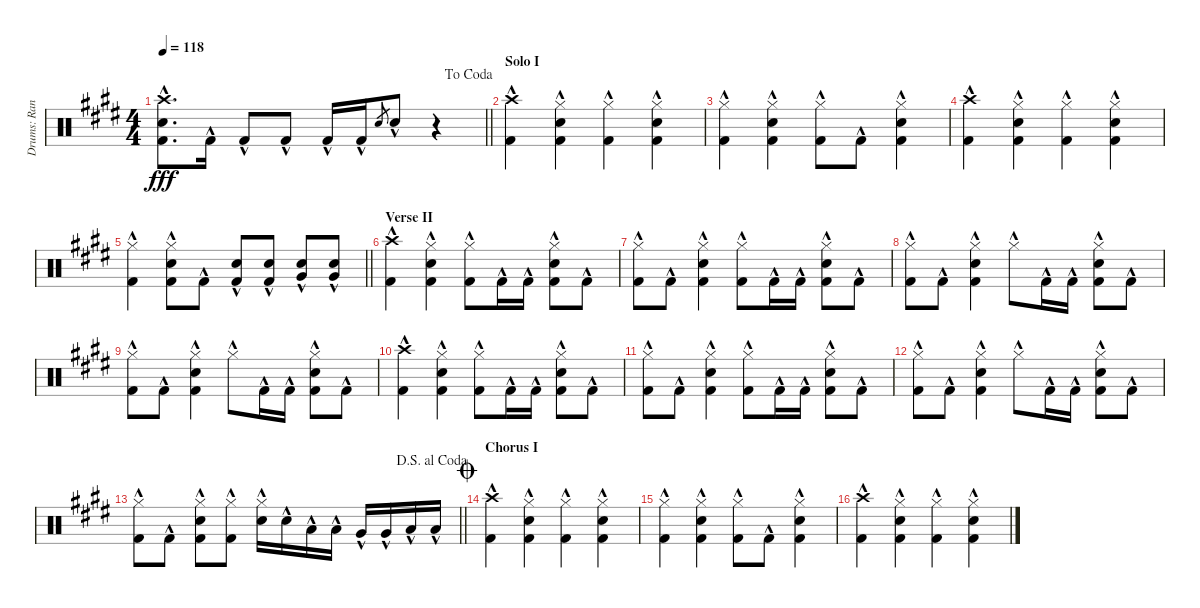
\track ("Drums: Randy" "Drums: Ran") {instrument percussion}
\staff {score}
\articulation defaults
\ts (4 4)
\jump dacoda
\tempo 118
\clef neutral
\barLineRight lightlight
\ks e
("Crash high (hit)"{hac} "Snare (hit) 2"{hac} "Kick (hit) 2"{hac}).8{d dy fff} "Kick (hit) 2"{hac}.16 "Kick (hit) 2"{hac}.8 "Kick (hit) 2"{hac}.8 "Kick (hit) 2"{hac}.16 "Kick (hit) 2"{hac}.16 "Snare (hit) 2".8{gr} "Snare (hit) 2"{hac}.8 r.4 |
\section ("" "Solo I")
("Crash high (hit)"{hac} "Kick (hit) 2"{hac}).4 ("Hi-Hat (closed)"{hac} "Snare (hit) 2"{hac} "Kick (hit) 2"{hac}).4 ("Hi-Hat (closed)"{hac} "Kick (hit) 2"{hac}).4 ("Hi-Hat (closed)"{hac} "Snare (hit) 2"{hac} "Kick (hit) 2"{hac}).4 |
("Hi-Hat (closed)"{hac} "Kick (hit) 2"{hac}).4 ("Hi-Hat (closed)"{hac} "Snare (hit) 2"{hac} "Kick (hit) 2"{hac}).4 ("Hi-Hat (closed)"{hac} "Kick (hit) 2"{hac}).8 "Kick (hit) 2"{hac}.8 ("Hi-Hat (closed)"{hac} "Snare (hit) 2"{hac} "Kick (hit) 2"{hac}).4 |
("Crash high (hit)"{hac} "Kick (hit) 2"{hac}).4 ("Hi-Hat (closed)"{hac} "Snare (hit) 2"{hac} "Kick (hit) 2"{hac}).4 ("Hi-Hat (closed)"{hac} "Kick (hit) 2"{hac}).4 ("Hi-Hat (closed)"{hac} "Snare (hit) 2"{hac} "Kick (hit) 2"{hac}).4 |
\barLineRight lightlight
("Hi-Hat (closed)"{hac} "Kick (hit) 2"{hac}).4 ("Hi-Hat (closed)"{hac} "Snare (hit) 2"{hac} "Kick (hit) 2"{hac}).8 "Kick (hit) 2"{hac}.8 ("Snare (hit) 2"{hac} "Kick (hit) 2"{hac}).8 ("Snare (hit) 2"{hac} "Kick (hit) 2"{hac}).8 ("Snare (hit) 2"{hac} "Very Low Tom (hit)"{hac}).8 ("Snare (hit) 2"{hac} "Very Low Tom (hit)"{hac}).8 |
\section ("" "Verse II")
("Crash high (hit)"{hac} "Kick (hit) 2"{hac}).4 ("Hi-Hat (closed)"{hac} "Snare (hit) 2"{hac} "Kick (hit) 2"{hac}).4 ("Hi-Hat (closed)"{hac} "Kick (hit) 2"{hac}).8 "Kick (hit) 2"{hac}.16 "Kick (hit) 2"{hac}.16 ("Hi-Hat (closed)"{hac} "Snare (hit) 2"{hac} "Kick (hit) 2"{hac}).8 "Kick (hit) 2"{hac}.8 |
("Hi-Hat (closed)"{hac} "Kick (hit) 2"{hac}).8 "Kick (hit) 2"{hac}.8 ("Hi-Hat (closed)"{hac} "Snare (hit) 2"{hac} "Kick (hit) 2"{hac}).4 ("Hi-Hat (closed)"{hac} "Kick (hit) 2"{hac}).8 "Kick (hit) 2"{hac}.16 "Kick (hit) 2"{hac}.16 ("Hi-Hat (closed)"{hac} "Snare (hit) 2"{hac} "Kick (hit) 2"{hac}).8 "Kick (hit) 2"{hac}.8 |
("Hi-Hat (closed)"{hac} "Kick (hit) 2"{hac}).8 "Kick (hit) 2"{hac}.8 ("Hi-Hat (closed)"{hac} "Snare (hit) 2"{hac} "Kick (hit) 2"{hac}).4 "Hi-Hat (closed)"{hac}.8 "Kick (hit) 2"{hac}.16 "Kick (hit) 2"{hac}.16 ("Hi-Hat (closed)"{hac} "Snare (hit) 2"{hac} "Kick (hit) 2"{hac}).8 "Kick (hit) 2"{hac}.8 |
("Hi-Hat (closed)"{hac} "Kick (hit) 2"{hac}).8 "Kick (hit) 2"{hac}.8 ("Hi-Hat (closed)"{hac} "Snare (hit) 2"{hac} "Kick (hit) 2"{hac}).4 "Hi-Hat (closed)"{hac}.8 "Kick (hit) 2"{hac}.16 "Kick (hit) 2"{hac}.16 ("Hi-Hat (closed)"{hac} "Snare (hit) 2"{hac} "Kick (hit) 2"{hac}).8 "Kick (hit) 2"{hac}.8 |
("Crash high (hit)"{hac} "Kick (hit) 2"{hac}).4 ("Hi-Hat (closed)"{hac} "Snare (hit) 2"{hac} "Kick (hit) 2"{hac}).4 ("Hi-Hat (closed)"{hac} "Kick (hit) 2"{hac}).8 "Kick (hit) 2"{hac}.16 "Kick (hit) 2"{hac}.16 ("Hi-Hat (closed)"{hac} "Snare (hit) 2"{hac} "Kick (hit) 2"{hac}).8 "Kick (hit) 2"{hac}.8 |
("Hi-Hat (closed)"{hac} "Kick (hit) 2"{hac}).8 "Kick (hit) 2"{hac}.8 ("Hi-Hat (closed)"{hac} "Snare (hit) 2"{hac} "Kick (hit) 2"{hac}).4 ("Hi-Hat (closed)"{hac} "Kick (hit) 2"{hac}).8 "Kick (hit) 2"{hac}.16 "Kick (hit) 2"{hac}.16 ("Hi-Hat (closed)"{hac} "Snare (hit) 2"{hac} "Kick (hit) 2"{hac}).8 "Kick (hit) 2"{hac}.8 |
("Hi-Hat (closed)"{hac} "Kick (hit) 2"{hac}).8 "Kick (hit) 2"{hac}.8 ("Hi-Hat (closed)"{hac} "Snare (hit) 2"{hac} "Kick (hit) 2"{hac}).4 "Hi-Hat (closed)"{hac}.8 "Kick (hit) 2"{hac}.16 "Kick (hit) 2"{hac}.16 ("Hi-Hat (closed)"{hac} "Snare (hit) 2"{hac} "Kick (hit) 2"{hac}).8 "Kick (hit) 2"{hac}.8 |
\jump dalsegnoalcoda
\barLineRight lightlight
("Hi-Hat (closed)"{hac} "Kick (hit) 2"{hac}).8 "Kick (hit) 2"{hac}.8 ("Hi-Hat (closed)"{hac} "Snare (hit) 2"{hac} "Kick (hit) 2"{hac}).8 ("Hi-Hat (closed)"{hac} "Kick (hit) 2"{hac}).8 ("Hi-Hat (closed)"{hac} "Snare (hit) 2"{hac}).16 "Snare (hit) 2"{hac}.16 "Low Tom (hit)"{hac}.16 "Low Tom (hit)"{hac}.16 "Very Low Tom (hit)"{hac}.16 "Very Low Tom (hit)"{hac}.16 "Low Tom (hit)"{hac}.16 "Low Tom (hit)"{hac}.16 |
\section ("" "Chorus I")
\jump coda
("Crash high (hit)"{hac} "Kick (hit) 2"{hac}).4 ("Hi-Hat (closed)"{hac} "Snare (hit) 2"{hac} "Kick (hit) 2"{hac}).4 ("Hi-Hat (closed)"{hac} "Kick (hit) 2"{hac}).4 ("Hi-Hat (closed)"{hac} "Snare (hit) 2"{hac} "Kick (hit) 2"{hac}).4 |
("Hi-Hat (closed)"{hac} "Kick (hit) 2"{hac}).4 ("Hi-Hat (closed)"{hac} "Snare (hit) 2"{hac} "Kick (hit) 2"{hac}).4 ("Hi-Hat (closed)"{hac} "Kick (hit) 2"{hac}).8 "Kick (hit) 2"{hac}.8 ("Hi-Hat (closed)"{hac} "Snare (hit) 2"{hac} "Kick (hit) 2"{hac}).4 |
("Crash high (hit)"{hac} "Kick (hit) 2"{hac}).4 ("Hi-Hat (closed)"{hac} "Snare (hit) 2"{hac} "Kick (hit) 2"{hac}).4 ("Hi-Hat (closed)"{hac} "Kick (hit) 2"{hac}).4 ("Hi-Hat (closed)"{hac} "Snare (hit) 2"{hac} "Kick (hit) 2"{hac}).4
